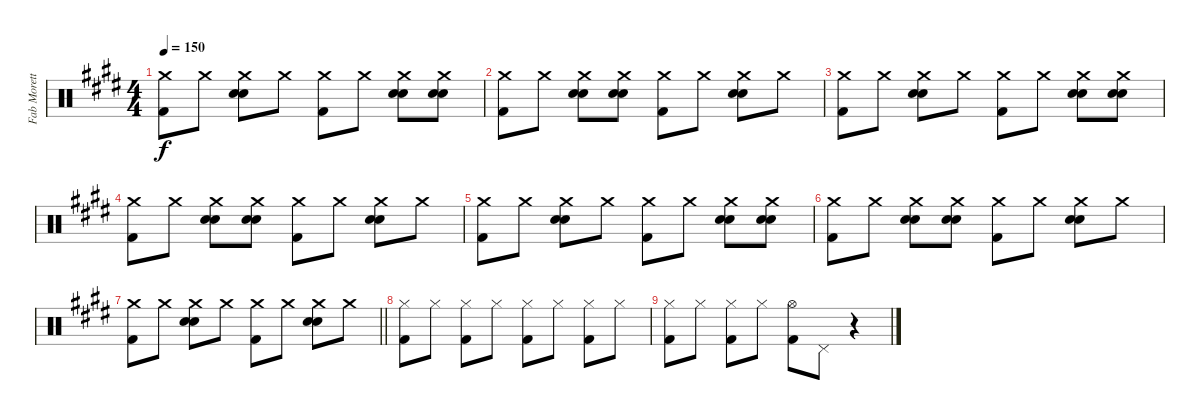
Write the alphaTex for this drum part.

\track ("Fab Moretti - Drums" "Fab Morett") {instrument percussion}
\staff {score}
\articulation defaults
\ts (4 4)
\tempo 150
\clef neutral
\ks e
("Crash medium (hit)" "Kick (hit) 2").8{dy f} "Crash medium (hit)".8 ("Crash medium (hit)" "Hand Clap (hit)" "Snare (hit) 2").8 "Crash medium (hit)".8 ("Crash medium (hit)" "Kick (hit) 2").8 "Crash medium (hit)".8 ("Crash medium (hit)" "Hand Clap (hit)" "Snare (hit) 2").8 ("Crash medium (hit)" "Hand Clap (hit)" "Snare (hit) 2").8 |
("Crash medium (hit)" "Kick (hit) 2").8 "Crash medium (hit)".8 ("Crash medium (hit)" "Hand Clap (hit)" "Snare (hit) 2").8 ("Crash medium (hit)" "Hand Clap (hit)" "Snare (hit) 2").8 ("Crash medium (hit)" "Kick (hit) 2").8 "Crash medium (hit)".8 ("Crash medium (hit)" "Hand Clap (hit)" "Snare (hit) 2").8 "Crash medium (hit)".8 |
("Crash medium (hit)" "Kick (hit) 2").8 "Crash medium (hit)".8 ("Crash medium (hit)" "Hand Clap (hit)" "Snare (hit) 2").8 "Crash medium (hit)".8 ("Crash medium (hit)" "Kick (hit) 2").8 "Crash medium (hit)".8 ("Crash medium (hit)" "Hand Clap (hit)" "Snare (hit) 2").8 ("Crash medium (hit)" "Hand Clap (hit)" "Snare (hit) 2").8 |
("Crash medium (hit)" "Kick (hit) 2").8 "Crash medium (hit)".8 ("Crash medium (hit)" "Hand Clap (hit)" "Snare (hit) 2").8 ("Crash medium (hit)" "Hand Clap (hit)" "Snare (hit) 2").8 ("Crash medium (hit)" "Kick (hit) 2").8 "Crash medium (hit)".8 ("Crash medium (hit)" "Hand Clap (hit)" "Snare (hit) 2").8 "Crash medium (hit)".8 |
("Crash medium (hit)" "Kick (hit) 2").8 "Crash medium (hit)".8 ("Crash medium (hit)" "Hand Clap (hit)" "Snare (hit) 2").8 "Crash medium (hit)".8 ("Crash medium (hit)" "Kick (hit) 2").8 "Crash medium (hit)".8 ("Crash medium (hit)" "Hand Clap (hit)" "Snare (hit) 2").8 ("Crash medium (hit)" "Hand Clap (hit)" "Snare (hit) 2").8 |
("Crash medium (hit)" "Kick (hit) 2").8 "Crash medium (hit)".8 ("Crash medium (hit)" "Hand Clap (hit)" "Snare (hit) 2").8 ("Crash medium (hit)" "Hand Clap (hit)" "Snare (hit) 2").8 ("Crash medium (hit)" "Kick (hit) 2").8 "Crash medium (hit)".8 ("Crash medium (hit)" "Hand Clap (hit)" "Snare (hit) 2").8 "Crash medium (hit)".8 |
\barLineRight lightlight
("Crash medium (hit)" "Kick (hit) 2").8 "Crash medium (hit)".8 ("Crash medium (hit)" "Hand Clap (hit)" "Snare (hit) 2").8 "Crash medium (hit)".8 ("Crash medium (hit)" "Kick (hit) 2").8 "Crash medium (hit)".8 ("Crash medium (hit)" "Hand Clap (hit)" "Snare (hit) 2").8 "Crash medium (hit)".8 |
("Hi-Hat (closed)" "Kick (hit) 2").8 "Hi-Hat (closed)".8 ("Hi-Hat (closed)" "Kick (hit) 2").8 "Hi-Hat (closed)".8 ("Hi-Hat (closed)" "Kick (hit) 2").8 "Hi-Hat (closed)".8 ("Hi-Hat (closed)" "Kick (hit) 2").8 "Hi-Hat (closed)".8 |
("Hi-Hat (closed)" "Kick (hit) 2").8 "Hi-Hat (closed)".8 ("Hi-Hat (closed)" "Kick (hit) 2").8 "Hi-Hat (closed)".8 ("Hi-Hat (open)" "Kick (hit) 2").8 "Pedal Hi-Hat (hit)".8 r.4
